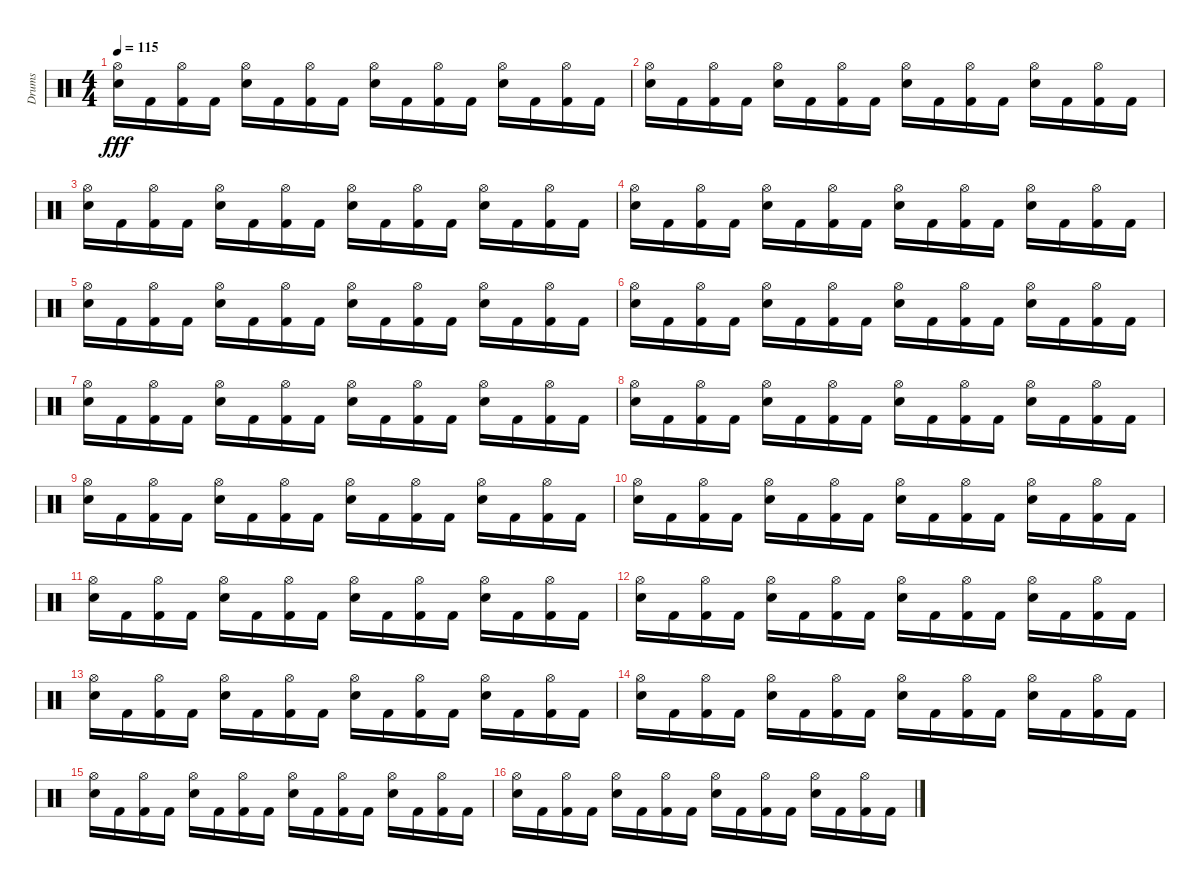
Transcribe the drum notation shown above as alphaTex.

\track ("Drums" "Drums") {instrument percussion}
\staff {score}
\articulation defaults
\ts (4 4)
\tempo 115
\clef neutral
\ks c
("Hi-Hat (open)" "Electric Snare (hit)").16{dy fff} "Kick (hit) 2".16 ("Hi-Hat (open)" "Kick (hit) 2").16 "Kick (hit) 2".16 ("Hi-Hat (open)" "Electric Snare (hit)").16 "Kick (hit) 2".16 ("Hi-Hat (open)" "Kick (hit) 2").16 "Kick (hit) 2".16 ("Hi-Hat (open)" "Electric Snare (hit)").16 "Kick (hit) 2".16 ("Hi-Hat (open)" "Kick (hit) 2").16 "Kick (hit) 2".16 ("Hi-Hat (open)" "Electric Snare (hit)").16 "Kick (hit) 2".16 ("Hi-Hat (open)" "Kick (hit) 2").16 "Kick (hit) 2".16 |
("Hi-Hat (open)" "Electric Snare (hit)").16 "Kick (hit) 2".16 ("Hi-Hat (open)" "Kick (hit) 2").16 "Kick (hit) 2".16 ("Hi-Hat (open)" "Electric Snare (hit)").16 "Kick (hit) 2".16 ("Hi-Hat (open)" "Kick (hit) 2").16 "Kick (hit) 2".16 ("Hi-Hat (open)" "Electric Snare (hit)").16 "Kick (hit) 2".16 ("Hi-Hat (open)" "Kick (hit) 2").16 "Kick (hit) 2".16 ("Hi-Hat (open)" "Electric Snare (hit)").16 "Kick (hit) 2".16 ("Hi-Hat (open)" "Kick (hit) 2").16 "Kick (hit) 2".16 |
("Hi-Hat (open)" "Electric Snare (hit)").16 "Kick (hit) 2".16 ("Hi-Hat (open)" "Kick (hit) 2").16 "Kick (hit) 2".16 ("Hi-Hat (open)" "Electric Snare (hit)").16 "Kick (hit) 2".16 ("Hi-Hat (open)" "Kick (hit) 2").16 "Kick (hit) 2".16 ("Hi-Hat (open)" "Electric Snare (hit)").16 "Kick (hit) 2".16 ("Hi-Hat (open)" "Kick (hit) 2").16 "Kick (hit) 2".16 ("Hi-Hat (open)" "Electric Snare (hit)").16 "Kick (hit) 2".16 ("Hi-Hat (open)" "Kick (hit) 2").16 "Kick (hit) 2".16 |
("Hi-Hat (open)" "Electric Snare (hit)").16 "Kick (hit) 2".16 ("Hi-Hat (open)" "Kick (hit) 2").16 "Kick (hit) 2".16 ("Hi-Hat (open)" "Electric Snare (hit)").16 "Kick (hit) 2".16 ("Hi-Hat (open)" "Kick (hit) 2").16 "Kick (hit) 2".16 ("Hi-Hat (open)" "Electric Snare (hit)").16 "Kick (hit) 2".16 ("Hi-Hat (open)" "Kick (hit) 2").16 "Kick (hit) 2".16 ("Hi-Hat (open)" "Electric Snare (hit)").16 "Kick (hit) 2".16 ("Hi-Hat (open)" "Kick (hit) 2").16 "Kick (hit) 2".16 |
("Hi-Hat (open)" "Electric Snare (hit)").16 "Kick (hit) 2".16 ("Hi-Hat (open)" "Kick (hit) 2").16 "Kick (hit) 2".16 ("Hi-Hat (open)" "Electric Snare (hit)").16 "Kick (hit) 2".16 ("Hi-Hat (open)" "Kick (hit) 2").16 "Kick (hit) 2".16 ("Hi-Hat (open)" "Electric Snare (hit)").16 "Kick (hit) 2".16 ("Hi-Hat (open)" "Kick (hit) 2").16 "Kick (hit) 2".16 ("Hi-Hat (open)" "Electric Snare (hit)").16 "Kick (hit) 2".16 ("Hi-Hat (open)" "Kick (hit) 2").16 "Kick (hit) 2".16 |
("Hi-Hat (open)" "Electric Snare (hit)").16 "Kick (hit) 2".16 ("Hi-Hat (open)" "Kick (hit) 2").16 "Kick (hit) 2".16 ("Hi-Hat (open)" "Electric Snare (hit)").16 "Kick (hit) 2".16 ("Hi-Hat (open)" "Kick (hit) 2").16 "Kick (hit) 2".16 ("Hi-Hat (open)" "Electric Snare (hit)").16 "Kick (hit) 2".16 ("Hi-Hat (open)" "Kick (hit) 2").16 "Kick (hit) 2".16 ("Hi-Hat (open)" "Electric Snare (hit)").16 "Kick (hit) 2".16 ("Hi-Hat (open)" "Kick (hit) 2").16 "Kick (hit) 2".16 |
("Hi-Hat (open)" "Electric Snare (hit)").16 "Kick (hit) 2".16 ("Hi-Hat (open)" "Kick (hit) 2").16 "Kick (hit) 2".16 ("Hi-Hat (open)" "Electric Snare (hit)").16 "Kick (hit) 2".16 ("Hi-Hat (open)" "Kick (hit) 2").16 "Kick (hit) 2".16 ("Hi-Hat (open)" "Electric Snare (hit)").16 "Kick (hit) 2".16 ("Hi-Hat (open)" "Kick (hit) 2").16 "Kick (hit) 2".16 ("Hi-Hat (open)" "Electric Snare (hit)").16 "Kick (hit) 2".16 ("Hi-Hat (open)" "Kick (hit) 2").16 "Kick (hit) 2".16 |
("Hi-Hat (open)" "Electric Snare (hit)").16{volume 16} "Kick (hit) 2".16 ("Hi-Hat (open)" "Kick (hit) 2").16 "Kick (hit) 2".16{volume 16} ("Hi-Hat (open)" "Electric Snare (hit)").16 "Kick (hit) 2".16{volume 16} ("Hi-Hat (open)" "Kick (hit) 2").16 "Kick (hit) 2".16{volume 16} ("Hi-Hat (open)" "Electric Snare (hit)").16 "Kick (hit) 2".16{volume 15} ("Hi-Hat (open)" "Kick (hit) 2").16 "Kick (hit) 2".16{volume 15} ("Hi-Hat (open)" "Electric Snare (hit)").16 "Kick (hit) 2".16 ("Hi-Hat (open)" "Kick (hit) 2").16{volume 15} "Kick (hit) 2".16 |
("Hi-Hat (open)" "Electric Snare (hit)").16{volume 15} "Kick (hit) 2".16 ("Hi-Hat (open)" "Kick (hit) 2").16{volume 15} "Kick (hit) 2".16 ("Hi-Hat (open)" "Electric Snare (hit)").16{volume 15} "Kick (hit) 2".16 ("Hi-Hat (open)" "Kick (hit) 2").16 "Kick (hit) 2".16{volume 15} ("Hi-Hat (open)" "Electric Snare (hit)").16 "Kick (hit) 2".16{volume 14} ("Hi-Hat (open)" "Kick (hit) 2").16 "Kick (hit) 2".16{volume 14} ("Hi-Hat (open)" "Electric Snare (hit)").16 "Kick (hit) 2".16{volume 14} ("Hi-Hat (open)" "Kick (hit) 2").16 "Kick (hit) 2".16{volume 14} |
("Hi-Hat (open)" "Electric Snare (hit)").16 "Kick (hit) 2".16 ("Hi-Hat (open)" "Kick (hit) 2").16{volume 14} "Kick (hit) 2".16 ("Hi-Hat (open)" "Electric Snare (hit)").16{volume 14} "Kick (hit) 2".16 ("Hi-Hat (open)" "Kick (hit) 2").16{volume 14} "Kick (hit) 2".16 ("Hi-Hat (open)" "Electric Snare (hit)").16{volume 14} "Kick (hit) 2".16 ("Hi-Hat (open)" "Kick (hit) 2").16{volume 14} "Kick (hit) 2".16 ("Hi-Hat (open)" "Electric Snare (hit)").16 "Kick (hit) 2".16{volume 13} ("Hi-Hat (open)" "Kick (hit) 2").16 "Kick (hit) 2".16{volume 13} |
("Hi-Hat (open)" "Electric Snare (hit)").16 "Kick (hit) 2".16{volume 13} ("Hi-Hat (open)" "Kick (hit) 2").16 "Kick (hit) 2".16{volume 13} ("Hi-Hat (open)" "Electric Snare (hit)").16 "Kick (hit) 2".16{volume 13} ("Hi-Hat (open)" "Kick (hit) 2").16 "Kick (hit) 2".16 ("Hi-Hat (open)" "Electric Snare (hit)").16{volume 13} "Kick (hit) 2".16 ("Hi-Hat (open)" "Kick (hit) 2").16{volume 13} "Kick (hit) 2".16 ("Hi-Hat (open)" "Electric Snare (hit)").16{volume 12} "Kick (hit) 2".16 ("Hi-Hat (open)" "Kick (hit) 2").16{volume 12} "Kick (hit) 2".16 |
("Hi-Hat (open)" "Electric Snare (hit)").16{volume 12} "Kick (hit) 2".16 ("Hi-Hat (open)" "Kick (hit) 2").16 "Kick (hit) 2".16{volume 12} ("Hi-Hat (open)" "Electric Snare (hit)").16 "Kick (hit) 2".16{volume 12} ("Hi-Hat (open)" "Kick (hit) 2").16 "Kick (hit) 2".16{volume 12} ("Hi-Hat (open)" "Electric Snare (hit)").16 "Kick (hit) 2".16{volume 12} ("Hi-Hat (open)" "Kick (hit) 2").16 "Kick (hit) 2".16{volume 12} ("Hi-Hat (open)" "Electric Snare (hit)").16 "Kick (hit) 2".16 ("Hi-Hat (open)" "Kick (hit) 2").16{volume 12} "Kick (hit) 2".16 |
("Hi-Hat (open)" "Electric Snare (hit)").16{volume 11} "Kick (hit) 2".16 ("Hi-Hat (open)" "Kick (hit) 2").16{volume 11} "Kick (hit) 2".16 ("Hi-Hat (open)" "Electric Snare (hit)").16{volume 11} "Kick (hit) 2".16 ("Hi-Hat (open)" "Kick (hit) 2").16{volume 11} "Kick (hit) 2".16 ("Hi-Hat (open)" "Electric Snare (hit)").16 "Kick (hit) 2".16{volume 11} ("Hi-Hat (open)" "Kick (hit) 2").16 "Kick (hit) 2".16{volume 11} ("Hi-Hat (open)" "Electric Snare (hit)").16 "Kick (hit) 2".16{volume 11} ("Hi-Hat (open)" "Kick (hit) 2").16 "Kick (hit) 2".16{volume 10} |
("Hi-Hat (open)" "Electric Snare (hit)").16 "Kick (hit) 2".16{volume 10} ("Hi-Hat (open)" "Kick (hit) 2").16 "Kick (hit) 2".16 ("Hi-Hat (open)" "Electric Snare (hit)").16{volume 10} "Kick (hit) 2".16 ("Hi-Hat (open)" "Kick (hit) 2").16{volume 10} "Kick (hit) 2".16 ("Hi-Hat (open)" "Electric Snare (hit)").16{volume 10} "Kick (hit) 2".16 ("Hi-Hat (open)" "Kick (hit) 2").16{volume 10} "Kick (hit) 2".16 ("Hi-Hat (open)" "Electric Snare (hit)").16{volume 10} "Kick (hit) 2".16 ("Hi-Hat (open)" "Kick (hit) 2").16 "Kick (hit) 2".16{volume 10} |
("Hi-Hat (open)" "Electric Snare (hit)").16 "Kick (hit) 2".16{volume 10} ("Hi-Hat (open)" "Kick (hit) 2").16 "Kick (hit) 2".16{volume 9} ("Hi-Hat (open)" "Electric Snare (hit)").16 "Kick (hit) 2".16{volume 9} ("Hi-Hat (open)" "Kick (hit) 2").16 "Kick (hit) 2".16 ("Hi-Hat (open)" "Electric Snare (hit)").16{volume 9} "Kick (hit) 2".16 ("Hi-Hat (open)" "Kick (hit) 2").16{volume 9} "Kick (hit) 2".16 ("Hi-Hat (open)" "Electric Snare (hit)").16{volume 9} "Kick (hit) 2".16 ("Hi-Hat (open)" "Kick (hit) 2").16{volume 9} "Kick (hit) 2".16 |
("Hi-Hat (open)" "Electric Snare (hit)").16{volume 9} "Kick (hit) 2".16 ("Hi-Hat (open)" "Kick (hit) 2").16 "Kick (hit) 2".16{volume 8} ("Hi-Hat (open)" "Electric Snare (hit)").16 "Kick (hit) 2".16{volume 8} ("Hi-Hat (open)" "Kick (hit) 2").16 "Kick (hit) 2".16{volume 8} ("Hi-Hat (open)" "Electric Snare (hit)").16 "Kick (hit) 2".16{volume 8} ("Hi-Hat (open)" "Kick (hit) 2").16 "Kick (hit) 2".16{volume 8} ("Hi-Hat (open)" "Electric Snare (hit)").16 "Kick (hit) 2".16 ("Hi-Hat (open)" "Kick (hit) 2").16{volume 8} "Kick (hit) 2".16
